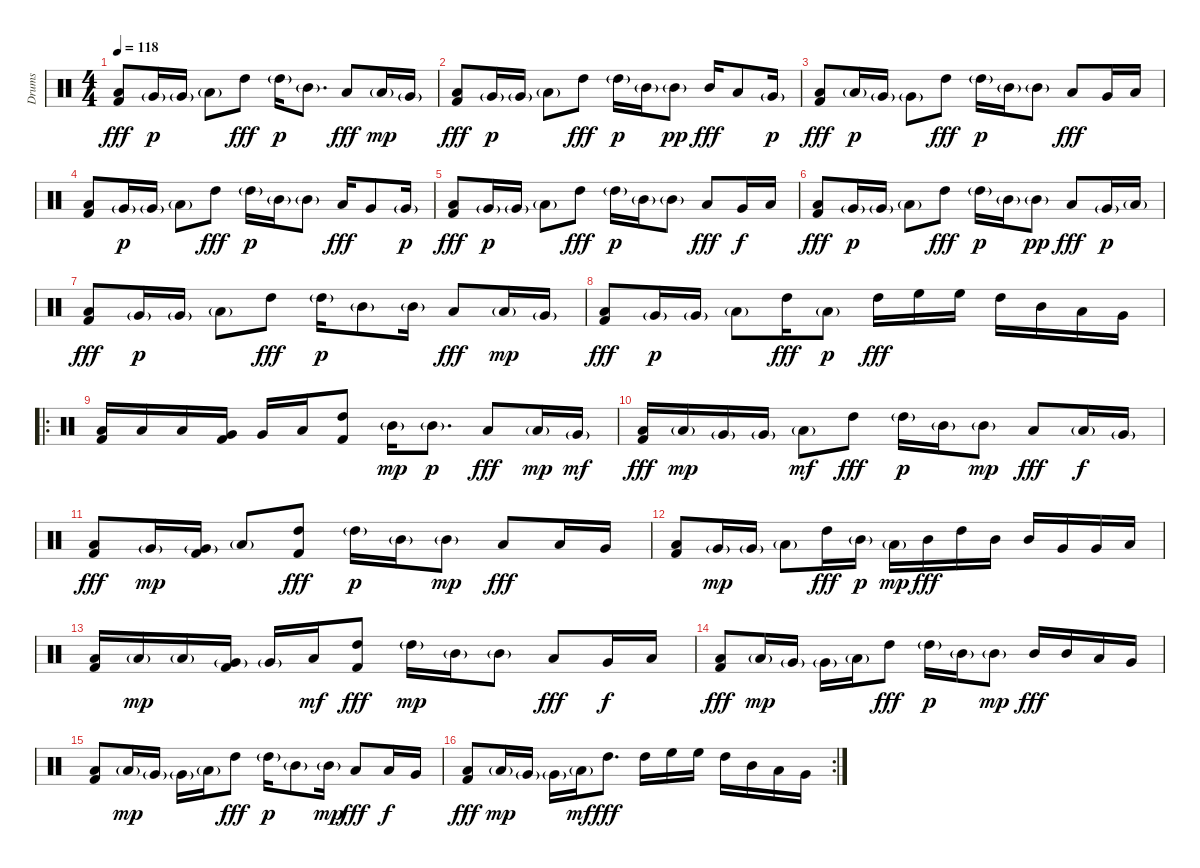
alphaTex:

\track ("Drums" "Drums") {instrument percussion}
\staff {score}
\articulation defaults
\ts (4 4)
\tempo 118
\clef neutral
\ks c
("Low Floor Tom (hit)" "Kick (hit) 2").8{dy fff} "Very Low Tom (hit)"{g}.16{dy p} "Very Low Tom (hit)"{g}.16 "Low Floor Tom (hit)"{g}.8 "High Tom (hit)".8{dy fff} "High Tom (hit)"{g}.16{dy p} "Mid Tom (hit)"{g}.8{d} "Low Tom (hit)".8{dy fff} "Low Tom (hit)"{g}.16{dy mp} "Very Low Tom (hit)"{g}.16 |
("Low Floor Tom (hit)" "Kick (hit) 2").8{dy fff} "Very Low Tom (hit)"{g}.16{dy p} "Very Low Tom (hit)"{g}.16 "Low Floor Tom (hit)"{g}.8 "High Tom (hit)".8{dy fff} "High Tom (hit)"{g}.16{dy p} "Mid Tom (hit)"{g}.16 "Mid Tom (hit)"{g}.8{dy pp} "Mid Tom (hit)".16{dy fff} "Low Tom (hit)".8 "Very Low Tom (hit)"{g}.16{dy p} |
("Low Floor Tom (hit)" "Kick (hit) 2").8{dy fff} "Low Floor Tom (hit)"{g}.16{dy p} "Very Low Tom (hit)"{g}.16 "Very Low Tom (hit)"{g}.8 "High Tom (hit)".8{dy fff} "High Tom (hit)"{g}.16{dy p} "Mid Tom (hit)"{g}.16 "Mid Tom (hit)"{g}.8 "Low Tom (hit)".8{dy fff} "Very Low Tom (hit)".16 "Low Tom (hit)".16 |
("Low Floor Tom (hit)" "Kick (hit) 2").8 "Very Low Tom (hit)"{g}.16{dy p} "Very Low Tom (hit)"{g}.16 "Low Floor Tom (hit)"{g}.8 "High Tom (hit)".8{dy fff} "High Tom (hit)"{g}.16{dy p} "Mid Tom (hit)"{g}.16 "Mid Tom (hit)"{g}.8 "Low Tom (hit)".16{dy fff} "Very Low Tom (hit)".8 "Very Low Tom (hit)"{g}.16{dy p} |
("Low Floor Tom (hit)" "Kick (hit) 2").8{dy fff} "Very Low Tom (hit)"{g}.16{dy p} "Very Low Tom (hit)"{g}.16 "Low Floor Tom (hit)"{g}.8 "High Tom (hit)".8{dy fff} "High Tom (hit)"{g}.16{dy p} "Mid Tom (hit)"{g}.16 "Mid Tom (hit)"{g}.8 "Low Tom (hit)".8{dy fff} "Very Low Tom (hit)".16{dy f} "Low Tom (hit)".16 |
("Low Floor Tom (hit)" "Kick (hit) 2").8{dy fff} "Very Low Tom (hit)"{g}.16{dy p} "Very Low Tom (hit)"{g}.16 "Low Floor Tom (hit)"{g}.8 "High Tom (hit)".8{dy fff} "High Tom (hit)"{g}.16{dy p} "Mid Tom (hit)"{g}.16 "Mid Tom (hit)"{g}.8{dy pp} "Low Tom (hit)".8{dy fff} "Very Low Tom (hit)"{g}.16{dy p} "Low Tom (hit)"{g}.16 |
("Low Floor Tom (hit)" "Kick (hit) 2").8{dy fff} "Very Low Tom (hit)"{g}.16{dy p} "Very Low Tom (hit)"{g}.16 "Low Floor Tom (hit)"{g}.8 "High Tom (hit)".8{dy fff} "High Tom (hit)"{g}.16{dy p} "Mid Tom (hit)"{g}.8 "Mid Tom (hit)"{g}.16 "Low Tom (hit)".8{dy fff} "Low Tom (hit)"{g}.16{dy mp} "Very Low Tom (hit)"{g}.16 |
("Low Floor Tom (hit)" "Kick (hit) 2").8{dy fff} "Very Low Tom (hit)"{g}.16{dy p} "Very Low Tom (hit)"{g}.16 "Low Floor Tom (hit)"{g}.8 "High Tom (hit)".16{dy fff} "Low Tom (hit)"{g}.8{dy p} "High Tom (hit)".16{dy fff} "High Floor Tom (hit)".16 "High Floor Tom (hit)".16 "High Tom (hit)".16 "Mid Tom (hit)".16 "Low Tom (hit)".16 "Very Low Tom (hit)".16 |
\ro
("Low Floor Tom (hit)" "Kick (hit) 2").16 "Low Tom (hit)".16 "Low Floor Tom (hit)".16 ("Very Low Tom (hit)" "Kick (hit) 2").16 "Very Low Tom (hit)".16 "Low Floor Tom (hit)".16 ("High Tom (hit)" "Kick (hit) 2").8 "Mid Tom (hit)"{g}.16{dy mp} "Mid Tom (hit)"{g}.8{d dy p} "Low Tom (hit)".8{dy fff} "Low Tom (hit)"{g}.16{dy mp} "Very Low Tom (hit)"{g}.16{dy mf} |
("Low Floor Tom (hit)" "Kick (hit) 2").16{dy fff} "Low Tom (hit)"{g}.16{dy mp} "Very Low Tom (hit)"{g}.16 "Very Low Tom (hit)"{g}.16 "Low Floor Tom (hit)"{g}.8{dy mf} "High Tom (hit)".8{dy fff} "High Tom (hit)"{g}.16{dy p} "Mid Tom (hit)"{g}.16 "Mid Tom (hit)"{g}.8{dy mp} "Low Tom (hit)".8{dy fff} "Low Tom (hit)"{g}.16{dy f} "Very Low Tom (hit)"{g}.16 |
("Low Floor Tom (hit)" "Kick (hit) 2").8{dy fff} "Very Low Tom (hit)"{g}.16{dy mp} ("Very Low Tom (hit)"{g} "Kick (hit) 2").16 "Low Floor Tom (hit)"{g}.8 ("High Tom (hit)" "Kick (hit) 2").8{dy fff} "High Tom (hit)"{g}.16{dy p} "Mid Tom (hit)"{g}.16 "Mid Tom (hit)"{g}.8{dy mp} "Low Tom (hit)".8{dy fff} "Low Tom (hit)".16 "Very Low Tom (hit)".16 |
("Low Floor Tom (hit)" "Kick (hit) 2").8 "Very Low Tom (hit)"{g}.16{dy mp} "Very Low Tom (hit)"{g}.16 "Low Floor Tom (hit)"{g}.8 "High Tom (hit)".16{dy fff} "Mid Tom (hit)"{g}.16{dy p} "Low Tom (hit)"{g}.16{dy mp} "Mid Tom (hit)".16{dy fff} "High Tom (hit)".16 "Mid Tom (hit)".16 "Mid Tom (hit)".16 "Very Low Tom (hit)".16 "Very Low Tom (hit)".16 "Low Floor Tom (hit)".16 |
("Low Floor Tom (hit)" "Kick (hit) 2").16 "Low Tom (hit)"{g}.16{dy mp} "Low Floor Tom (hit)"{g}.16 ("Very Low Tom (hit)"{g} "Kick (hit) 2").16 "Very Low Tom (hit)"{g}.16 "Low Floor Tom (hit)".16{dy mf} ("High Tom (hit)" "Kick (hit) 2").8{dy fff} "High Tom (hit)"{g}.16{dy mp} "Mid Tom (hit)"{g}.16 "Mid Tom (hit)"{g}.8 "Low Tom (hit)".8{dy fff} "Very Low Tom (hit)".16{dy f} "Low Tom (hit)".16 |
("Low Floor Tom (hit)" "Kick (hit) 2").8{dy fff} "Low Floor Tom (hit)"{g}.16{dy mp} "Very Low Tom (hit)"{g}.16 "Very Low Tom (hit)"{g}.16 "Low Floor Tom (hit)"{g}.16 "High Tom (hit)".8{dy fff} "High Tom (hit)"{g}.16{dy p} "Mid Tom (hit)"{g}.16 "Mid Tom (hit)"{g}.8{dy mp} "Mid Tom (hit)".16{dy fff} "Mid Tom (hit)".16 "Low Tom (hit)".16 "Very Low Tom (hit)".16 |
("Low Floor Tom (hit)" "Kick (hit) 2").8 "Low Floor Tom (hit)"{g}.16{dy mp} "Very Low Tom (hit)"{g}.16 "Very Low Tom (hit)"{g}.16 "Low Floor Tom (hit)"{g}.16 "High Tom (hit)".8{dy fff} "High Tom (hit)"{g}.16{dy p} "Mid Tom (hit)"{g}.8 "Mid Tom (hit)"{g}.16{dy mp} "Low Tom (hit)".8{dy fff} "Low Tom (hit)".16{dy f} "Very Low Tom (hit)".16 |
\rc 2
("Low Floor Tom (hit)" "Kick (hit) 2").8{dy fff} "Low Floor Tom (hit)"{g}.16{dy mp} "Very Low Tom (hit)"{g}.16 "Very Low Tom (hit)"{g}.16 "Low Floor Tom (hit)"{g}.16{dy mf} "High Tom (hit)".8{d dy fff} "High Tom (hit)".16 "High Floor Tom (hit)".16 "High Floor Tom (hit)".16 "High Tom (hit)".16 "Mid Tom (hit)".16 "Low Tom (hit)".16 "Very Low Tom (hit)".16
